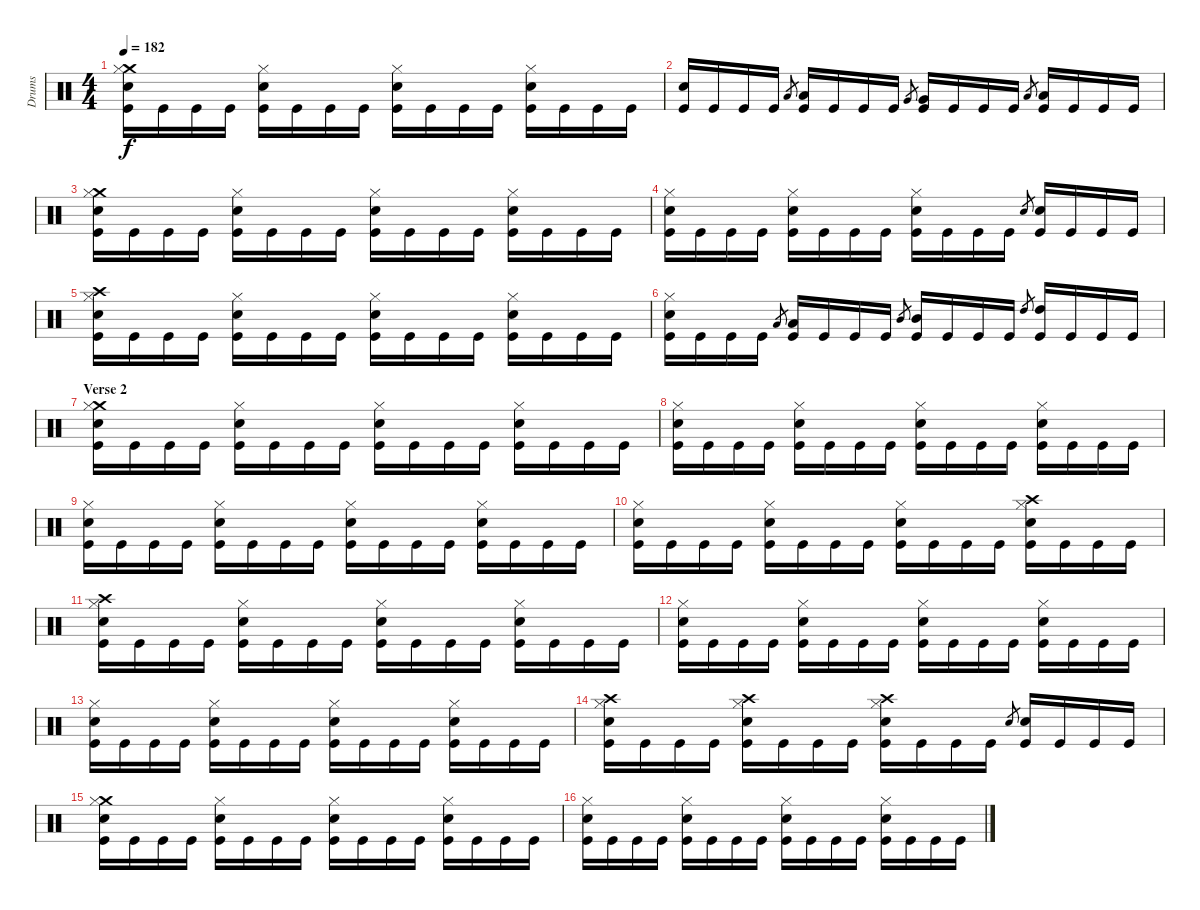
\track ("Drums" "Drums") {instrument percussion}
\staff {score}
\articulation defaults
\ts (4 4)
\tempo 182
\clef neutral
\ks c
("Crash medium (hit)" "Hi-Hat (closed)" "Snare (hit) 2" "Kick (hit)").16{dy f} "Kick (hit)".16 "Kick (hit)".16 "Kick (hit)".16 ("Hi-Hat (closed)" "Snare (hit) 2" "Kick (hit)").16 "Kick (hit)".16 "Kick (hit)".16 "Kick (hit)".16 ("Hi-Hat (closed)" "Snare (hit) 2" "Kick (hit)").16 "Kick (hit)".16 "Kick (hit)".16 "Kick (hit)".16 ("Hi-Hat (closed)" "Snare (hit) 2" "Kick (hit)").16 "Kick (hit)".16 "Kick (hit)".16 "Kick (hit)".16 |
("Snare (hit) 2" "Kick (hit)").16 "Kick (hit)".16 "Kick (hit)".16 "Kick (hit)".16 "Low Tom (hit)".8{gr} ("Low Tom (hit)" "Kick (hit)").16 "Kick (hit)".16 "Kick (hit)".16 "Kick (hit)".16 "Very Low Tom (hit)".8{gr} ("Very Low Tom (hit)" "Kick (hit)").16 "Kick (hit)".16 "Kick (hit)".16 "Kick (hit)".16 "Low Floor Tom (hit)".8{gr} ("Low Floor Tom (hit)" "Kick (hit)").16 "Kick (hit)".16 "Kick (hit)".16 "Kick (hit)".16 |
("Crash medium (hit)" "Hi-Hat (closed)" "Snare (hit) 2" "Kick (hit)").16 "Kick (hit)".16 "Kick (hit)".16 "Kick (hit)".16 ("Hi-Hat (closed)" "Snare (hit) 2" "Kick (hit)").16 "Kick (hit)".16 "Kick (hit)".16 "Kick (hit)".16 ("Hi-Hat (closed)" "Snare (hit) 2" "Kick (hit)").16 "Kick (hit)".16 "Kick (hit)".16 "Kick (hit)".16 ("Hi-Hat (closed)" "Snare (hit) 2" "Kick (hit)").16 "Kick (hit)".16 "Kick (hit)".16 "Kick (hit)".16 |
("Hi-Hat (closed)" "Snare (hit) 2" "Kick (hit)").16 "Kick (hit)".16 "Kick (hit)".16 "Kick (hit)".16 ("Hi-Hat (closed)" "Snare (hit) 2" "Kick (hit)").16 "Kick (hit)".16 "Kick (hit)".16 "Kick (hit)".16 ("Hi-Hat (closed)" "Snare (hit) 2" "Kick (hit)").16 "Kick (hit)".16 "Kick (hit)".16 "Kick (hit)".16 "Snare (hit) 2".8{gr} ("Snare (hit) 2" "Kick (hit)").16 "Kick (hit)".16 "Kick (hit)".16 "Kick (hit)".16 |
("Crash high (hit)" "Hi-Hat (closed)" "Snare (hit) 2" "Kick (hit)").16 "Kick (hit)".16 "Kick (hit)".16 "Kick (hit)".16 ("Hi-Hat (closed)" "Snare (hit) 2" "Kick (hit)").16 "Kick (hit)".16 "Kick (hit)".16 "Kick (hit)".16 ("Hi-Hat (closed)" "Snare (hit) 2" "Kick (hit)").16 "Kick (hit)".16 "Kick (hit)".16 "Kick (hit)".16 ("Hi-Hat (closed)" "Snare (hit) 2" "Kick (hit)").16 "Kick (hit)".16 "Kick (hit)".16 "Kick (hit)".16 |
("Hi-Hat (closed)" "Snare (hit) 2" "Kick (hit)").16 "Kick (hit)".16 "Kick (hit)".16 "Kick (hit)".16 "Low Tom (hit)".8{gr} ("Low Tom (hit)" "Kick (hit)").16 "Kick (hit)".16 "Kick (hit)".16 "Kick (hit)".16 "Mid Tom (hit)".8{gr} ("Mid Tom (hit)" "Kick (hit)").16 "Kick (hit)".16 "Kick (hit)".16 "Kick (hit)".16 "High Tom (hit)".8{gr} ("High Tom (hit)" "Kick (hit)").16 "Kick (hit)".16 "Kick (hit)".16 "Kick (hit)".16 |
\section ("" "Verse 2")
("Crash medium (hit)" "Hi-Hat (closed)" "Snare (hit) 2" "Kick (hit)").16 "Kick (hit)".16 "Kick (hit)".16 "Kick (hit)".16 ("Hi-Hat (closed)" "Snare (hit) 2" "Kick (hit)").16 "Kick (hit)".16 "Kick (hit)".16 "Kick (hit)".16 ("Hi-Hat (closed)" "Snare (hit) 2" "Kick (hit)").16 "Kick (hit)".16 "Kick (hit)".16 "Kick (hit)".16 ("Hi-Hat (closed)" "Snare (hit) 2" "Kick (hit)").16 "Kick (hit)".16 "Kick (hit)".16 "Kick (hit)".16 |
("Hi-Hat (closed)" "Snare (hit) 2" "Kick (hit)").16 "Kick (hit)".16 "Kick (hit)".16 "Kick (hit)".16 ("Hi-Hat (closed)" "Snare (hit) 2" "Kick (hit)").16 "Kick (hit)".16 "Kick (hit)".16 "Kick (hit)".16 ("Hi-Hat (closed)" "Snare (hit) 2" "Kick (hit)").16 "Kick (hit)".16 "Kick (hit)".16 "Kick (hit)".16 ("Hi-Hat (closed)" "Snare (hit) 2" "Kick (hit)").16 "Kick (hit)".16 "Kick (hit)".16 "Kick (hit)".16 |
("Hi-Hat (closed)" "Snare (hit) 2" "Kick (hit)").16 "Kick (hit)".16 "Kick (hit)".16 "Kick (hit)".16 ("Hi-Hat (closed)" "Snare (hit) 2" "Kick (hit)").16 "Kick (hit)".16 "Kick (hit)".16 "Kick (hit)".16 ("Hi-Hat (closed)" "Snare (hit) 2" "Kick (hit)").16 "Kick (hit)".16 "Kick (hit)".16 "Kick (hit)".16 ("Hi-Hat (closed)" "Snare (hit) 2" "Kick (hit)").16 "Kick (hit)".16 "Kick (hit)".16 "Kick (hit)".16 |
("Hi-Hat (closed)" "Snare (hit) 2" "Kick (hit)").16 "Kick (hit)".16 "Kick (hit)".16 "Kick (hit)".16 ("Hi-Hat (closed)" "Snare (hit) 2" "Kick (hit)").16 "Kick (hit)".16 "Kick (hit)".16 "Kick (hit)".16 ("Hi-Hat (closed)" "Snare (hit) 2" "Kick (hit)").16 "Kick (hit)".16 "Kick (hit)".16 "Kick (hit)".16 ("Crash high (hit)" "Hi-Hat (closed)" "Snare (hit) 2" "Kick (hit)").16 "Kick (hit)".16 "Kick (hit)".16 "Kick (hit)".16 |
("Crash high (hit)" "Hi-Hat (closed)" "Snare (hit) 2" "Kick (hit)").16 "Kick (hit)".16 "Kick (hit)".16 "Kick (hit)".16 ("Hi-Hat (closed)" "Snare (hit) 2" "Kick (hit)").16 "Kick (hit)".16 "Kick (hit)".16 "Kick (hit)".16 ("Hi-Hat (closed)" "Snare (hit) 2" "Kick (hit)").16 "Kick (hit)".16 "Kick (hit)".16 "Kick (hit)".16 ("Hi-Hat (closed)" "Snare (hit) 2" "Kick (hit)").16 "Kick (hit)".16 "Kick (hit)".16 "Kick (hit)".16 |
("Hi-Hat (closed)" "Snare (hit) 2" "Kick (hit)").16 "Kick (hit)".16 "Kick (hit)".16 "Kick (hit)".16 ("Hi-Hat (closed)" "Snare (hit) 2" "Kick (hit)").16 "Kick (hit)".16 "Kick (hit)".16 "Kick (hit)".16 ("Hi-Hat (closed)" "Snare (hit) 2" "Kick (hit)").16 "Kick (hit)".16 "Kick (hit)".16 "Kick (hit)".16 ("Hi-Hat (closed)" "Snare (hit) 2" "Kick (hit)").16 "Kick (hit)".16 "Kick (hit)".16 "Kick (hit)".16 |
("Hi-Hat (closed)" "Snare (hit) 2" "Kick (hit)").16 "Kick (hit)".16 "Kick (hit)".16 "Kick (hit)".16 ("Hi-Hat (closed)" "Snare (hit) 2" "Kick (hit)").16 "Kick (hit)".16 "Kick (hit)".16 "Kick (hit)".16 ("Hi-Hat (closed)" "Snare (hit) 2" "Kick (hit)").16 "Kick (hit)".16 "Kick (hit)".16 "Kick (hit)".16 ("Hi-Hat (closed)" "Snare (hit) 2" "Kick (hit)").16 "Kick (hit)".16 "Kick (hit)".16 "Kick (hit)".16 |
("Crash high (hit)" "Hi-Hat (closed)" "Snare (hit) 2" "Kick (hit)").16 "Kick (hit)".16 "Kick (hit)".16 "Kick (hit)".16 ("Crash high (hit)" "Hi-Hat (closed)" "Snare (hit) 2" "Kick (hit)").16 "Kick (hit)".16 "Kick (hit)".16 "Kick (hit)".16 ("Crash high (hit)" "Hi-Hat (closed)" "Snare (hit) 2" "Kick (hit)").16 "Kick (hit)".16 "Kick (hit)".16 "Kick (hit)".16 "Snare (hit) 2".8{gr} ("Snare (hit) 2" "Kick (hit)").16 "Kick (hit)".16 "Kick (hit)".16 "Kick (hit)".16 |
("Crash medium (hit)" "Hi-Hat (closed)" "Snare (hit) 2" "Kick (hit)").16 "Kick (hit)".16 "Kick (hit)".16 "Kick (hit)".16 ("Hi-Hat (closed)" "Snare (hit) 2" "Kick (hit)").16 "Kick (hit)".16 "Kick (hit)".16 "Kick (hit)".16 ("Hi-Hat (closed)" "Snare (hit) 2" "Kick (hit)").16 "Kick (hit)".16 "Kick (hit)".16 "Kick (hit)".16 ("Hi-Hat (closed)" "Snare (hit) 2" "Kick (hit)").16 "Kick (hit)".16 "Kick (hit)".16 "Kick (hit)".16 |
("Hi-Hat (closed)" "Snare (hit) 2" "Kick (hit)").16 "Kick (hit)".16 "Kick (hit)".16 "Kick (hit)".16 ("Hi-Hat (closed)" "Snare (hit) 2" "Kick (hit)").16 "Kick (hit)".16 "Kick (hit)".16 "Kick (hit)".16 ("Hi-Hat (closed)" "Snare (hit) 2" "Kick (hit)").16 "Kick (hit)".16 "Kick (hit)".16 "Kick (hit)".16 ("Hi-Hat (closed)" "Snare (hit) 2" "Kick (hit)").16 "Kick (hit)".16 "Kick (hit)".16 "Kick (hit)".16
